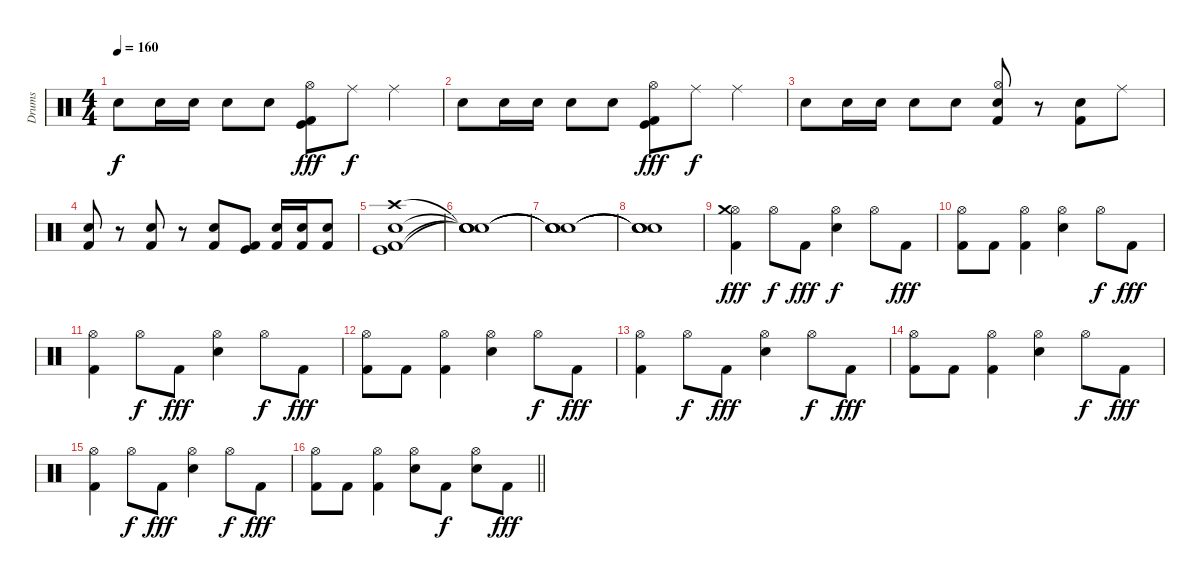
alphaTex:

\track ("Drums" "Drums") {instrument percussion}
\staff {score}
\articulation defaults
\ts (4 4)
\tempo 160
\clef neutral
\ks c "Snare (hit) 2".8{dy f} "Snare (hit) 2".16 "Snare (hit) 2".16 "Snare (hit) 2".8 "Snare (hit) 2".8
("Hi-Hat (open)" "Kick (hit)" "Kick (hit) 2").8{dy fff} "Ride (middle)".8{dy f} "Ride (middle)".4 |
"Snare (hit) 2".8 "Snare (hit) 2".16 "Snare (hit) 2".16 "Snare (hit) 2".8 "Snare (hit) 2".8 ("Hi-Hat (open)" "Kick (hit)" "Kick (hit) 2").8{dy fff} "Ride (middle)".8{dy f} "Ride (middle)".4 |
"Snare (hit) 2".8 "Snare (hit) 2".16 "Snare (hit) 2".16 "Snare (hit) 2".8 "Snare (hit) 2".8 ("Hi-Hat (open)" "Snare (hit) 2" "Kick (hit) 2").8 r.8 ("Snare (hit) 2" "Kick (hit) 2").8 "Ride (middle)".8 |
("Snare (hit) 2" "Kick (hit) 2").8 r.8 ("Snare (hit) 2" "Kick (hit) 2").8 r.8 ("Snare (hit) 2" "Kick (hit) 2").8 ("Kick (hit) 2" "Kick (hit)").8 ("Snare (hit) 2" "Kick (hit) 2").16 ("Snare (hit) 2" "Kick (hit) 2").16 ("Snare (hit) 2" "Kick (hit) 2").8 |
("Crash high (hit)" "Snare (hit) 2" "Kick (hit) 2" "Kick (hit)").1 |
("Snare (hit)"{t} "Snare (hit)"{t} "Snare (hit)"{t} "Snare (hit)"{t}).1 |
("Snare (hit)"{t} "Snare (hit)"{t} "Snare (hit)"{t} "Snare (hit)"{t}).1 |
("Snare (hit)"{t} "Snare (hit)"{t} "Snare (hit)"{t} "Snare (hit)"{t}).1 |
("Hi-Hat (open)" "Crash medium (hit)" "Kick (hit) 2").4{dy fff} "Hi-Hat (open)".8{dy f} "Kick (hit) 2".8{dy fff} ("Hi-Hat (open)" "Snare (hit) 2").4{dy f} "Hi-Hat (open)".8 "Kick (hit) 2".8{dy fff} |
("Hi-Hat (open)" "Kick (hit) 2").8 "Kick (hit) 2".8 ("Hi-Hat (open)" "Kick (hit) 2").4 ("Hi-Hat (open)" "Snare (hit) 2").4 "Hi-Hat (open)".8{dy f} "Kick (hit) 2".8{dy fff} |
("Hi-Hat (open)" "Kick (hit) 2").4 "Hi-Hat (open)".8{dy f} "Kick (hit) 2".8{dy fff} ("Hi-Hat (open)" "Snare (hit) 2").4 "Hi-Hat (open)".8{dy f} "Kick (hit) 2".8{dy fff} |
("Hi-Hat (open)" "Kick (hit) 2").8 "Kick (hit) 2".8 ("Hi-Hat (open)" "Kick (hit) 2").4 ("Hi-Hat (open)" "Snare (hit) 2").4 "Hi-Hat (open)".8{dy f} "Kick (hit) 2".8{dy fff} |
("Hi-Hat (open)" "Kick (hit) 2").4 "Hi-Hat (open)".8{dy f} "Kick (hit) 2".8{dy fff} ("Hi-Hat (open)" "Snare (hit) 2").4 "Hi-Hat (open)".8{dy f} "Kick (hit) 2".8{dy fff} |
("Hi-Hat (open)" "Kick (hit) 2").8 "Kick (hit) 2".8 ("Hi-Hat (open)" "Kick (hit) 2").4 ("Hi-Hat (open)" "Snare (hit) 2").4 "Hi-Hat (open)".8{dy f} "Kick (hit) 2".8{dy fff} |
("Hi-Hat (open)" "Kick (hit) 2").4 "Hi-Hat (open)".8{dy f} "Kick (hit) 2".8{dy fff} ("Hi-Hat (open)" "Snare (hit) 2").4 "Hi-Hat (open)".8{dy f} "Kick (hit) 2".8{dy fff} |
\barLineRight lightlight
("Hi-Hat (open)" "Kick (hit) 2").8 "Kick (hit) 2".8 ("Hi-Hat (open)" "Kick (hit) 2").4 ("Hi-Hat (open)" "Snare (hit) 2").8 "Kick (hit) 2".8{dy f} ("Hi-Hat (open)" "Snare (hit) 2").8 "Kick (hit) 2".8{dy fff}
